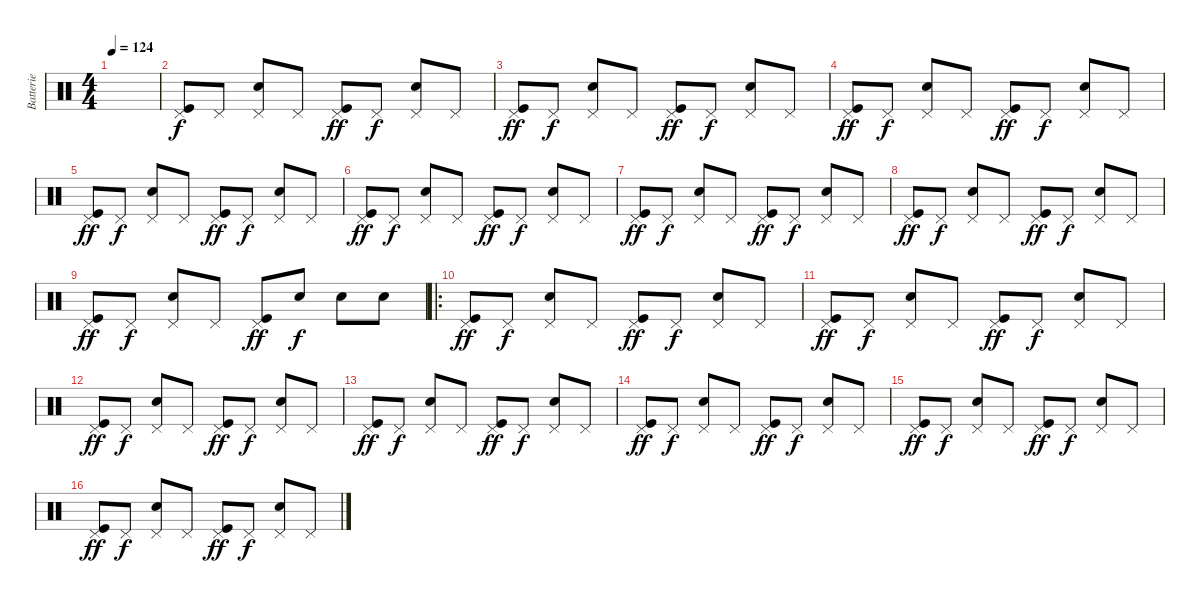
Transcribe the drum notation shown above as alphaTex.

\track ("Batterie" "Batterie") {instrument percussion}
\staff {score}
\articulation defaults
\ts (4 4)
\tempo 124
\clef neutral
\ks c
|
("Pedal Hi-Hat (hit)" "Kick (hit)").8 "Pedal Hi-Hat (hit)".8{dy f} ("Pedal Hi-Hat (hit)" "Electric Snare (hit)").8 "Pedal Hi-Hat (hit)".8 ("Pedal Hi-Hat (hit)" "Kick (hit)").8{dy ff} "Pedal Hi-Hat (hit)".8{dy f} ("Pedal Hi-Hat (hit)" "Electric Snare (hit)").8 "Pedal Hi-Hat (hit)".8 |
("Pedal Hi-Hat (hit)" "Kick (hit)").8{dy ff} "Pedal Hi-Hat (hit)".8{dy f} ("Pedal Hi-Hat (hit)" "Electric Snare (hit)").8 "Pedal Hi-Hat (hit)".8 ("Pedal Hi-Hat (hit)" "Kick (hit)").8{dy ff} "Pedal Hi-Hat (hit)".8{dy f} ("Pedal Hi-Hat (hit)" "Electric Snare (hit)").8 "Pedal Hi-Hat (hit)".8 |
("Pedal Hi-Hat (hit)" "Kick (hit)").8{dy ff} "Pedal Hi-Hat (hit)".8{dy f} ("Pedal Hi-Hat (hit)" "Electric Snare (hit)").8 "Pedal Hi-Hat (hit)".8 ("Pedal Hi-Hat (hit)" "Kick (hit)").8{dy ff} "Pedal Hi-Hat (hit)".8{dy f} ("Pedal Hi-Hat (hit)" "Electric Snare (hit)").8 "Pedal Hi-Hat (hit)".8 |
("Pedal Hi-Hat (hit)" "Kick (hit)").8{dy ff} "Pedal Hi-Hat (hit)".8{dy f} ("Pedal Hi-Hat (hit)" "Electric Snare (hit)").8 "Pedal Hi-Hat (hit)".8 ("Pedal Hi-Hat (hit)" "Kick (hit)").8{dy ff} "Pedal Hi-Hat (hit)".8{dy f} ("Pedal Hi-Hat (hit)" "Electric Snare (hit)").8 "Pedal Hi-Hat (hit)".8 |
("Pedal Hi-Hat (hit)" "Kick (hit)").8{dy ff} "Pedal Hi-Hat (hit)".8{dy f} ("Pedal Hi-Hat (hit)" "Electric Snare (hit)").8 "Pedal Hi-Hat (hit)".8 ("Pedal Hi-Hat (hit)" "Kick (hit)").8{dy ff} "Pedal Hi-Hat (hit)".8{dy f} ("Pedal Hi-Hat (hit)" "Electric Snare (hit)").8 "Pedal Hi-Hat (hit)".8 |
("Pedal Hi-Hat (hit)" "Kick (hit)").8{dy ff} "Pedal Hi-Hat (hit)".8{dy f} ("Pedal Hi-Hat (hit)" "Electric Snare (hit)").8 "Pedal Hi-Hat (hit)".8 ("Pedal Hi-Hat (hit)" "Kick (hit)").8{dy ff} "Pedal Hi-Hat (hit)".8{dy f} ("Pedal Hi-Hat (hit)" "Electric Snare (hit)").8 "Pedal Hi-Hat (hit)".8 |
("Pedal Hi-Hat (hit)" "Kick (hit)").8{dy ff} "Pedal Hi-Hat (hit)".8{dy f} ("Pedal Hi-Hat (hit)" "Electric Snare (hit)").8 "Pedal Hi-Hat (hit)".8 ("Pedal Hi-Hat (hit)" "Kick (hit)").8{dy ff} "Pedal Hi-Hat (hit)".8{dy f} ("Pedal Hi-Hat (hit)" "Electric Snare (hit)").8 "Pedal Hi-Hat (hit)".8 |
("Pedal Hi-Hat (hit)" "Kick (hit)").8{dy ff} "Pedal Hi-Hat (hit)".8{dy f} ("Pedal Hi-Hat (hit)" "Electric Snare (hit)").8 "Pedal Hi-Hat (hit)".8 ("Pedal Hi-Hat (hit)" "Kick (hit)").8{dy ff} "Electric Snare (hit)".8{dy f} "Electric Snare (hit)".8 "Electric Snare (hit)".8 |
\ro
("Pedal Hi-Hat (hit)" "Kick (hit)").8{dy ff} "Pedal Hi-Hat (hit)".8{dy f} ("Pedal Hi-Hat (hit)" "Electric Snare (hit)").8 "Pedal Hi-Hat (hit)".8 ("Pedal Hi-Hat (hit)" "Kick (hit)").8{dy ff} "Pedal Hi-Hat (hit)".8{dy f} ("Pedal Hi-Hat (hit)" "Electric Snare (hit)").8 "Pedal Hi-Hat (hit)".8 |
("Pedal Hi-Hat (hit)" "Kick (hit)").8{dy ff} "Pedal Hi-Hat (hit)".8{dy f} ("Pedal Hi-Hat (hit)" "Electric Snare (hit)").8 "Pedal Hi-Hat (hit)".8 ("Pedal Hi-Hat (hit)" "Kick (hit)").8{dy ff} "Pedal Hi-Hat (hit)".8{dy f} ("Pedal Hi-Hat (hit)" "Electric Snare (hit)").8 "Pedal Hi-Hat (hit)".8 |
("Pedal Hi-Hat (hit)" "Kick (hit)").8{dy ff} "Pedal Hi-Hat (hit)".8{dy f} ("Pedal Hi-Hat (hit)" "Electric Snare (hit)").8 "Pedal Hi-Hat (hit)".8 ("Pedal Hi-Hat (hit)" "Kick (hit)").8{dy ff} "Pedal Hi-Hat (hit)".8{dy f} ("Pedal Hi-Hat (hit)" "Electric Snare (hit)").8 "Pedal Hi-Hat (hit)".8 |
("Pedal Hi-Hat (hit)" "Kick (hit)").8{dy ff} "Pedal Hi-Hat (hit)".8{dy f} ("Pedal Hi-Hat (hit)" "Electric Snare (hit)").8 "Pedal Hi-Hat (hit)".8 ("Pedal Hi-Hat (hit)" "Kick (hit)").8{dy ff} "Pedal Hi-Hat (hit)".8{dy f} ("Pedal Hi-Hat (hit)" "Electric Snare (hit)").8 "Pedal Hi-Hat (hit)".8 |
("Pedal Hi-Hat (hit)" "Kick (hit)").8{dy ff} "Pedal Hi-Hat (hit)".8{dy f} ("Pedal Hi-Hat (hit)" "Electric Snare (hit)").8 "Pedal Hi-Hat (hit)".8 ("Pedal Hi-Hat (hit)" "Kick (hit)").8{dy ff} "Pedal Hi-Hat (hit)".8{dy f} ("Pedal Hi-Hat (hit)" "Electric Snare (hit)").8 "Pedal Hi-Hat (hit)".8 |
("Pedal Hi-Hat (hit)" "Kick (hit)").8{dy ff} "Pedal Hi-Hat (hit)".8{dy f} ("Pedal Hi-Hat (hit)" "Electric Snare (hit)").8 "Pedal Hi-Hat (hit)".8 ("Pedal Hi-Hat (hit)" "Kick (hit)").8{dy ff} "Pedal Hi-Hat (hit)".8{dy f} ("Pedal Hi-Hat (hit)" "Electric Snare (hit)").8 "Pedal Hi-Hat (hit)".8 |
("Pedal Hi-Hat (hit)" "Kick (hit)").8{dy ff} "Pedal Hi-Hat (hit)".8{dy f} ("Pedal Hi-Hat (hit)" "Electric Snare (hit)").8 "Pedal Hi-Hat (hit)".8 ("Pedal Hi-Hat (hit)" "Kick (hit)").8{dy ff} "Pedal Hi-Hat (hit)".8{dy f} ("Pedal Hi-Hat (hit)" "Electric Snare (hit)").8 "Pedal Hi-Hat (hit)".8
